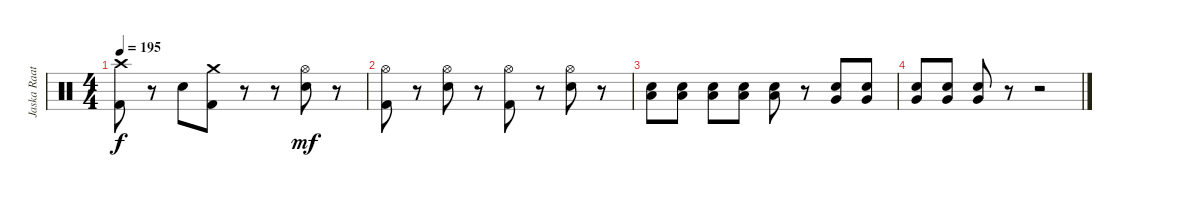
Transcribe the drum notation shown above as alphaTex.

\track ("Jaska Raatikainen" "Jaska Raat") {instrument percussion}
\staff {score}
\articulation defaults
\ts (4 4)
\tempo 195
\clef neutral
\ks c
("Crash high (hit)" "Kick (hit) 2").8{dy f} r.8 "Electric Snare (hit)".8 ("Crash medium (hit)" "Kick (hit) 2").8 r.8 r.8 ("Hi-Hat (open)" "Electric Snare (hit)").8{dy mf} r.8 |
("Hi-Hat (open)" "Kick (hit) 2").8 r.8 ("Hi-Hat (open)" "Electric Snare (hit)").8 r.8 ("Hi-Hat (open)" "Kick (hit) 2").8 r.8 ("Hi-Hat (open)" "Electric Snare (hit)").8 r.8 |
("Electric Snare (hit)" "Low Tom (hit)").8 ("Electric Snare (hit)" "Low Tom (hit)").8 ("Electric Snare (hit)" "Low Tom (hit)").8 ("Electric Snare (hit)" "Low Tom (hit)").8 ("Electric Snare (hit)" "Low Tom (hit)").8 r.8 ("Electric Snare (hit)" "Very Low Tom (hit)").8 ("Electric Snare (hit)" "Very Low Tom (hit)").8 |
("Electric Snare (hit)" "Very Low Tom (hit)").8 ("Electric Snare (hit)" "Very Low Tom (hit)").8 ("Electric Snare (hit)" "Very Low Tom (hit)").8 r.8 r.2
